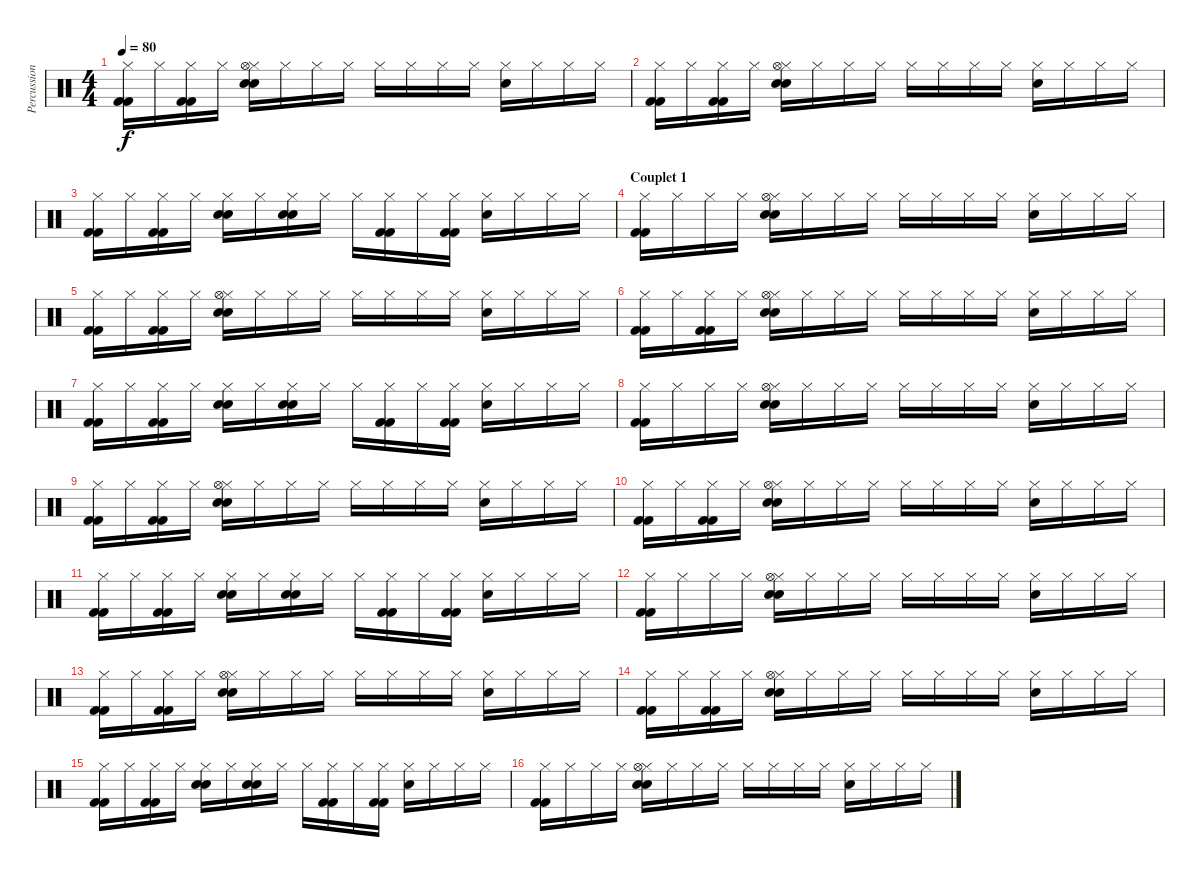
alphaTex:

\track ("Percussions" "Percussion") {instrument percussion}
\staff {score}
\articulation defaults
\ts (4 4)
\tempo 80
\clef neutral
\ks c
("Hi-Hat (closed)" "Kick (hit) 2" "Kick (hit) 2").16{dy f} "Hi-Hat (closed)".16 ("Hi-Hat (closed)" "Kick (hit) 2" "Kick (hit) 2").16 "Hi-Hat (closed)".16 ("Electric Snare (hit)" "Hi-Hat (closed)" "Electric Snare (hit)" "Hi-Hat (open)").16 "Hi-Hat (closed)".16 "Hi-Hat (closed)".16 "Hi-Hat (closed)".16 "Hi-Hat (closed)".16 "Hi-Hat (closed)".16 "Hi-Hat (closed)".16 "Hi-Hat (closed)".16 ("Electric Snare (hit)" "Hi-Hat (closed)").16 "Hi-Hat (closed)".16 "Hi-Hat (closed)".16 "Hi-Hat (closed)".16 |
("Hi-Hat (closed)" "Kick (hit) 2" "Kick (hit) 2").16 "Hi-Hat (closed)".16 ("Hi-Hat (closed)" "Kick (hit) 2" "Kick (hit) 2").16 "Hi-Hat (closed)".16 ("Electric Snare (hit)" "Hi-Hat (closed)" "Electric Snare (hit)" "Hi-Hat (open)").16 "Hi-Hat (closed)".16 "Hi-Hat (closed)".16 "Hi-Hat (closed)".16 "Hi-Hat (closed)".16 "Hi-Hat (closed)".16 "Hi-Hat (closed)".16 "Hi-Hat (closed)".16 ("Electric Snare (hit)" "Hi-Hat (closed)").16 "Hi-Hat (closed)".16 "Hi-Hat (closed)".16 "Hi-Hat (closed)".16 |
("Hi-Hat (closed)" "Kick (hit) 2" "Kick (hit) 2").16 "Hi-Hat (closed)".16 ("Hi-Hat (closed)" "Kick (hit) 2" "Kick (hit) 2").16 "Hi-Hat (closed)".16 ("Electric Snare (hit)" "Hi-Hat (closed)" "Electric Snare (hit)").16 "Hi-Hat (closed)".16 ("Electric Snare (hit)" "Hi-Hat (closed)" "Electric Snare (hit)").16 "Hi-Hat (closed)".16 "Hi-Hat (closed)".16 ("Hi-Hat (closed)" "Kick (hit) 2" "Kick (hit) 2").16 "Hi-Hat (closed)".16 ("Hi-Hat (closed)" "Kick (hit) 2" "Kick (hit) 2").16 ("Electric Snare (hit)" "Hi-Hat (closed)").16 "Hi-Hat (closed)".16 "Hi-Hat (closed)".16 "Hi-Hat (closed)".16 |
\section ("" "Couplet 1")
("Hi-Hat (closed)" "Kick (hit) 2" "Kick (hit) 2").16 "Hi-Hat (closed)".16 "Hi-Hat (closed)".16 "Hi-Hat (closed)".16 ("Electric Snare (hit)" "Hi-Hat (closed)" "Electric Snare (hit)" "Hi-Hat (open)").16 "Hi-Hat (closed)".16 "Hi-Hat (closed)".16 "Hi-Hat (closed)".16 "Hi-Hat (closed)".16 "Hi-Hat (closed)".16 "Hi-Hat (closed)".16 "Hi-Hat (closed)".16 ("Electric Snare (hit)" "Hi-Hat (closed)").16 "Hi-Hat (closed)".16 "Hi-Hat (closed)".16 "Hi-Hat (closed)".16 |
("Hi-Hat (closed)" "Kick (hit) 2" "Kick (hit) 2").16 "Hi-Hat (closed)".16 ("Hi-Hat (closed)" "Kick (hit) 2" "Kick (hit) 2").16 "Hi-Hat (closed)".16 ("Electric Snare (hit)" "Hi-Hat (closed)" "Electric Snare (hit)" "Hi-Hat (open)").16 "Hi-Hat (closed)".16 "Hi-Hat (closed)".16 "Hi-Hat (closed)".16 "Hi-Hat (closed)".16 "Hi-Hat (closed)".16 "Hi-Hat (closed)".16 "Hi-Hat (closed)".16 ("Electric Snare (hit)" "Hi-Hat (closed)").16 "Hi-Hat (closed)".16 "Hi-Hat (closed)".16 "Hi-Hat (closed)".16 |
("Hi-Hat (closed)" "Kick (hit) 2" "Kick (hit) 2").16 "Hi-Hat (closed)".16 ("Hi-Hat (closed)" "Kick (hit) 2" "Kick (hit) 2").16 "Hi-Hat (closed)".16 ("Electric Snare (hit)" "Hi-Hat (closed)" "Electric Snare (hit)" "Hi-Hat (open)").16 "Hi-Hat (closed)".16 "Hi-Hat (closed)".16 "Hi-Hat (closed)".16 "Hi-Hat (closed)".16 "Hi-Hat (closed)".16 "Hi-Hat (closed)".16 "Hi-Hat (closed)".16 ("Electric Snare (hit)" "Hi-Hat (closed)").16 "Hi-Hat (closed)".16 "Hi-Hat (closed)".16 "Hi-Hat (closed)".16 |
("Hi-Hat (closed)" "Kick (hit) 2" "Kick (hit) 2").16 "Hi-Hat (closed)".16 ("Hi-Hat (closed)" "Kick (hit) 2" "Kick (hit) 2").16 "Hi-Hat (closed)".16 ("Electric Snare (hit)" "Hi-Hat (closed)" "Electric Snare (hit)").16 "Hi-Hat (closed)".16 ("Electric Snare (hit)" "Hi-Hat (closed)" "Electric Snare (hit)").16 "Hi-Hat (closed)".16 "Hi-Hat (closed)".16 ("Hi-Hat (closed)" "Kick (hit) 2" "Kick (hit) 2").16 "Hi-Hat (closed)".16 ("Hi-Hat (closed)" "Kick (hit) 2" "Kick (hit) 2").16 ("Electric Snare (hit)" "Hi-Hat (closed)").16 "Hi-Hat (closed)".16 "Hi-Hat (closed)".16 "Hi-Hat (closed)".16 |
("Hi-Hat (closed)" "Kick (hit) 2" "Kick (hit) 2").16 "Hi-Hat (closed)".16 "Hi-Hat (closed)".16 "Hi-Hat (closed)".16 ("Electric Snare (hit)" "Hi-Hat (closed)" "Electric Snare (hit)" "Hi-Hat (open)").16 "Hi-Hat (closed)".16 "Hi-Hat (closed)".16 "Hi-Hat (closed)".16 "Hi-Hat (closed)".16 "Hi-Hat (closed)".16 "Hi-Hat (closed)".16 "Hi-Hat (closed)".16 ("Electric Snare (hit)" "Hi-Hat (closed)").16 "Hi-Hat (closed)".16 "Hi-Hat (closed)".16 "Hi-Hat (closed)".16 |
("Hi-Hat (closed)" "Kick (hit) 2" "Kick (hit) 2").16 "Hi-Hat (closed)".16 ("Hi-Hat (closed)" "Kick (hit) 2" "Kick (hit) 2").16 "Hi-Hat (closed)".16 ("Electric Snare (hit)" "Hi-Hat (closed)" "Electric Snare (hit)" "Hi-Hat (open)").16 "Hi-Hat (closed)".16 "Hi-Hat (closed)".16 "Hi-Hat (closed)".16 "Hi-Hat (closed)".16 "Hi-Hat (closed)".16 "Hi-Hat (closed)".16 "Hi-Hat (closed)".16 ("Electric Snare (hit)" "Hi-Hat (closed)").16 "Hi-Hat (closed)".16 "Hi-Hat (closed)".16 "Hi-Hat (closed)".16 |
("Hi-Hat (closed)" "Kick (hit) 2" "Kick (hit) 2").16 "Hi-Hat (closed)".16 ("Hi-Hat (closed)" "Kick (hit) 2" "Kick (hit) 2").16 "Hi-Hat (closed)".16 ("Electric Snare (hit)" "Hi-Hat (closed)" "Electric Snare (hit)" "Hi-Hat (open)").16 "Hi-Hat (closed)".16 "Hi-Hat (closed)".16 "Hi-Hat (closed)".16 "Hi-Hat (closed)".16 "Hi-Hat (closed)".16 "Hi-Hat (closed)".16 "Hi-Hat (closed)".16 ("Electric Snare (hit)" "Hi-Hat (closed)").16 "Hi-Hat (closed)".16 "Hi-Hat (closed)".16 "Hi-Hat (closed)".16 |
("Hi-Hat (closed)" "Kick (hit) 2" "Kick (hit) 2").16 "Hi-Hat (closed)".16 ("Hi-Hat (closed)" "Kick (hit) 2" "Kick (hit) 2").16 "Hi-Hat (closed)".16 ("Electric Snare (hit)" "Hi-Hat (closed)" "Electric Snare (hit)").16 "Hi-Hat (closed)".16 ("Electric Snare (hit)" "Hi-Hat (closed)" "Electric Snare (hit)").16 "Hi-Hat (closed)".16 "Hi-Hat (closed)".16 ("Hi-Hat (closed)" "Kick (hit) 2" "Kick (hit) 2").16 "Hi-Hat (closed)".16 ("Hi-Hat (closed)" "Kick (hit) 2" "Kick (hit) 2").16 ("Electric Snare (hit)" "Hi-Hat (closed)").16 "Hi-Hat (closed)".16 "Hi-Hat (closed)".16 "Hi-Hat (closed)".16 |
("Hi-Hat (closed)" "Kick (hit) 2" "Kick (hit) 2").16 "Hi-Hat (closed)".16 "Hi-Hat (closed)".16 "Hi-Hat (closed)".16 ("Electric Snare (hit)" "Hi-Hat (closed)" "Electric Snare (hit)" "Hi-Hat (open)").16 "Hi-Hat (closed)".16 "Hi-Hat (closed)".16 "Hi-Hat (closed)".16 "Hi-Hat (closed)".16 "Hi-Hat (closed)".16 "Hi-Hat (closed)".16 "Hi-Hat (closed)".16 ("Electric Snare (hit)" "Hi-Hat (closed)").16 "Hi-Hat (closed)".16 "Hi-Hat (closed)".16 "Hi-Hat (closed)".16 |
("Hi-Hat (closed)" "Kick (hit) 2" "Kick (hit) 2").16 "Hi-Hat (closed)".16 ("Hi-Hat (closed)" "Kick (hit) 2" "Kick (hit) 2").16 "Hi-Hat (closed)".16 ("Electric Snare (hit)" "Hi-Hat (closed)" "Electric Snare (hit)" "Hi-Hat (open)").16 "Hi-Hat (closed)".16 "Hi-Hat (closed)".16 "Hi-Hat (closed)".16 "Hi-Hat (closed)".16 "Hi-Hat (closed)".16 "Hi-Hat (closed)".16 "Hi-Hat (closed)".16 ("Electric Snare (hit)" "Hi-Hat (closed)").16 "Hi-Hat (closed)".16 "Hi-Hat (closed)".16 "Hi-Hat (closed)".16 |
("Hi-Hat (closed)" "Kick (hit) 2" "Kick (hit) 2").16 "Hi-Hat (closed)".16 ("Hi-Hat (closed)" "Kick (hit) 2" "Kick (hit) 2").16 "Hi-Hat (closed)".16 ("Electric Snare (hit)" "Hi-Hat (closed)" "Electric Snare (hit)" "Hi-Hat (open)").16 "Hi-Hat (closed)".16 "Hi-Hat (closed)".16 "Hi-Hat (closed)".16 "Hi-Hat (closed)".16 "Hi-Hat (closed)".16 "Hi-Hat (closed)".16 "Hi-Hat (closed)".16 ("Electric Snare (hit)" "Hi-Hat (closed)").16 "Hi-Hat (closed)".16 "Hi-Hat (closed)".16 "Hi-Hat (closed)".16 |
("Hi-Hat (closed)" "Kick (hit) 2" "Kick (hit) 2").16 "Hi-Hat (closed)".16 ("Hi-Hat (closed)" "Kick (hit) 2" "Kick (hit) 2").16 "Hi-Hat (closed)".16 ("Electric Snare (hit)" "Hi-Hat (closed)" "Electric Snare (hit)").16 "Hi-Hat (closed)".16 ("Electric Snare (hit)" "Hi-Hat (closed)" "Electric Snare (hit)").16 "Hi-Hat (closed)".16 "Hi-Hat (closed)".16 ("Hi-Hat (closed)" "Kick (hit) 2" "Kick (hit) 2").16 "Hi-Hat (closed)".16 ("Hi-Hat (closed)" "Kick (hit) 2" "Kick (hit) 2").16 ("Electric Snare (hit)" "Hi-Hat (closed)").16 "Hi-Hat (closed)".16 "Hi-Hat (closed)".16 "Hi-Hat (closed)".16 |
("Hi-Hat (closed)" "Kick (hit) 2" "Kick (hit) 2").16 "Hi-Hat (closed)".16 "Hi-Hat (closed)".16 "Hi-Hat (closed)".16 ("Electric Snare (hit)" "Hi-Hat (closed)" "Electric Snare (hit)" "Hi-Hat (open)").16 "Hi-Hat (closed)".16 "Hi-Hat (closed)".16 "Hi-Hat (closed)".16 "Hi-Hat (closed)".16 "Hi-Hat (closed)".16 "Hi-Hat (closed)".16 "Hi-Hat (closed)".16 ("Electric Snare (hit)" "Hi-Hat (closed)").16 "Hi-Hat (closed)".16 "Hi-Hat (closed)".16 "Hi-Hat (closed)".16
